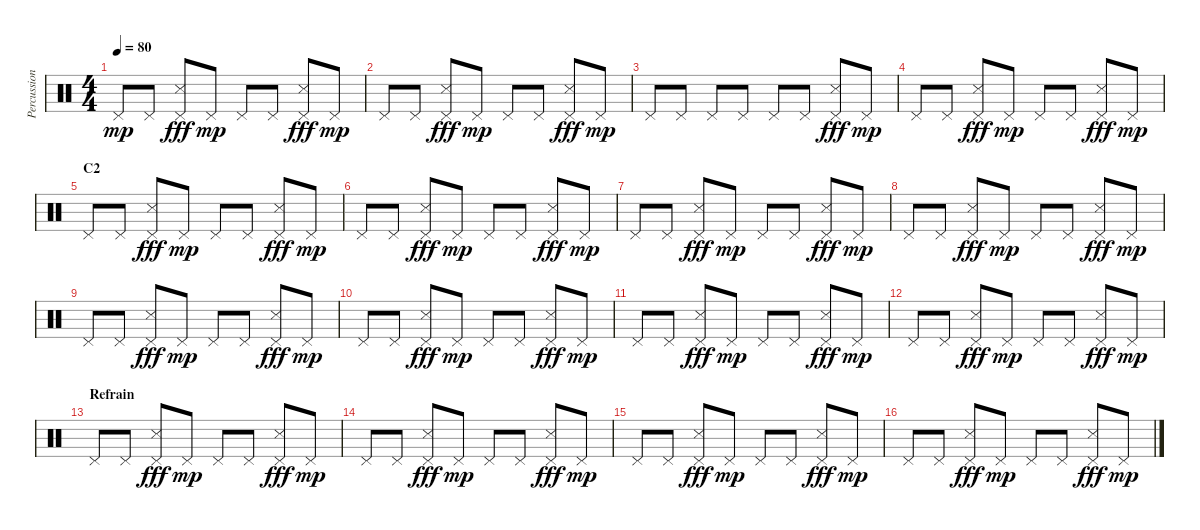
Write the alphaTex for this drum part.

\track ("Percussions" "Percussion") {instrument percussion}
\staff {score}
\articulation defaults
\ts (4 4)
\tempo 80
\clef neutral
\ks c "Pedal Hi-Hat (hit)".8{dy mp} "Pedal Hi-Hat (hit)".8
("Pedal Hi-Hat (hit)" "Snare (side stick) 3").8{dy fff} "Pedal Hi-Hat (hit)".8{dy mp} "Pedal Hi-Hat (hit)".8 "Pedal Hi-Hat (hit)".8 ("Pedal Hi-Hat (hit)" "Snare (side stick) 3").8{dy fff} "Pedal Hi-Hat (hit)".8{dy mp} |
"Pedal Hi-Hat (hit)".8 "Pedal Hi-Hat (hit)".8 ("Pedal Hi-Hat (hit)" "Snare (side stick) 3").8{dy fff} "Pedal Hi-Hat (hit)".8{dy mp} "Pedal Hi-Hat (hit)".8 "Pedal Hi-Hat (hit)".8 ("Pedal Hi-Hat (hit)" "Snare (side stick) 3").8{dy fff} "Pedal Hi-Hat (hit)".8{dy mp} |
"Pedal Hi-Hat (hit)".8 "Pedal Hi-Hat (hit)".8 "Pedal Hi-Hat (hit)".8 "Pedal Hi-Hat (hit)".8 "Pedal Hi-Hat (hit)".8 "Pedal Hi-Hat (hit)".8 ("Pedal Hi-Hat (hit)" "Snare (side stick) 3").8{dy fff} "Pedal Hi-Hat (hit)".8{dy mp} |
"Pedal Hi-Hat (hit)".8 "Pedal Hi-Hat (hit)".8 ("Pedal Hi-Hat (hit)" "Snare (side stick) 3").8{dy fff} "Pedal Hi-Hat (hit)".8{dy mp} "Pedal Hi-Hat (hit)".8 "Pedal Hi-Hat (hit)".8 ("Pedal Hi-Hat (hit)" "Snare (side stick) 3").8{dy fff} "Pedal Hi-Hat (hit)".8{dy mp} |
\section ("" "C2")
"Pedal Hi-Hat (hit)".8 "Pedal Hi-Hat (hit)".8 ("Pedal Hi-Hat (hit)" "Snare (side stick) 3").8{dy fff} "Pedal Hi-Hat (hit)".8{dy mp} "Pedal Hi-Hat (hit)".8 "Pedal Hi-Hat (hit)".8 ("Pedal Hi-Hat (hit)" "Snare (side stick) 3").8{dy fff} "Pedal Hi-Hat (hit)".8{dy mp} |
"Pedal Hi-Hat (hit)".8 "Pedal Hi-Hat (hit)".8 ("Pedal Hi-Hat (hit)" "Snare (side stick) 3").8{dy fff} "Pedal Hi-Hat (hit)".8{dy mp} "Pedal Hi-Hat (hit)".8 "Pedal Hi-Hat (hit)".8 ("Pedal Hi-Hat (hit)" "Snare (side stick) 3").8{dy fff} "Pedal Hi-Hat (hit)".8{dy mp} |
"Pedal Hi-Hat (hit)".8 "Pedal Hi-Hat (hit)".8 ("Pedal Hi-Hat (hit)" "Snare (side stick) 3").8{dy fff} "Pedal Hi-Hat (hit)".8{dy mp} "Pedal Hi-Hat (hit)".8 "Pedal Hi-Hat (hit)".8 ("Pedal Hi-Hat (hit)" "Snare (side stick) 3").8{dy fff} "Pedal Hi-Hat (hit)".8{dy mp} |
"Pedal Hi-Hat (hit)".8 "Pedal Hi-Hat (hit)".8 ("Pedal Hi-Hat (hit)" "Snare (side stick) 3").8{dy fff} "Pedal Hi-Hat (hit)".8{dy mp} "Pedal Hi-Hat (hit)".8 "Pedal Hi-Hat (hit)".8 ("Pedal Hi-Hat (hit)" "Snare (side stick) 3").8{dy fff} "Pedal Hi-Hat (hit)".8{dy mp} |
"Pedal Hi-Hat (hit)".8 "Pedal Hi-Hat (hit)".8 ("Pedal Hi-Hat (hit)" "Snare (side stick) 3").8{dy fff} "Pedal Hi-Hat (hit)".8{dy mp} "Pedal Hi-Hat (hit)".8 "Pedal Hi-Hat (hit)".8 ("Pedal Hi-Hat (hit)" "Snare (side stick) 3").8{dy fff} "Pedal Hi-Hat (hit)".8{dy mp} |
"Pedal Hi-Hat (hit)".8 "Pedal Hi-Hat (hit)".8 ("Pedal Hi-Hat (hit)" "Snare (side stick) 3").8{dy fff} "Pedal Hi-Hat (hit)".8{dy mp} "Pedal Hi-Hat (hit)".8 "Pedal Hi-Hat (hit)".8 ("Pedal Hi-Hat (hit)" "Snare (side stick) 3").8{dy fff} "Pedal Hi-Hat (hit)".8{dy mp} |
"Pedal Hi-Hat (hit)".8 "Pedal Hi-Hat (hit)".8 ("Pedal Hi-Hat (hit)" "Snare (side stick) 3").8{dy fff} "Pedal Hi-Hat (hit)".8{dy mp} "Pedal Hi-Hat (hit)".8 "Pedal Hi-Hat (hit)".8 ("Pedal Hi-Hat (hit)" "Snare (side stick) 3").8{dy fff} "Pedal Hi-Hat (hit)".8{dy mp} |
"Pedal Hi-Hat (hit)".8 "Pedal Hi-Hat (hit)".8 ("Pedal Hi-Hat (hit)" "Snare (side stick) 3").8{dy fff} "Pedal Hi-Hat (hit)".8{dy mp} "Pedal Hi-Hat (hit)".8 "Pedal Hi-Hat (hit)".8 ("Pedal Hi-Hat (hit)" "Snare (side stick) 3").8{dy fff} "Pedal Hi-Hat (hit)".8{dy mp} |
\section ("" "Refrain")
"Pedal Hi-Hat (hit)".8 "Pedal Hi-Hat (hit)".8 ("Pedal Hi-Hat (hit)" "Snare (side stick) 3").8{dy fff} "Pedal Hi-Hat (hit)".8{dy mp} "Pedal Hi-Hat (hit)".8 "Pedal Hi-Hat (hit)".8 ("Pedal Hi-Hat (hit)" "Snare (side stick) 3").8{dy fff} "Pedal Hi-Hat (hit)".8{dy mp} |
"Pedal Hi-Hat (hit)".8 "Pedal Hi-Hat (hit)".8 ("Pedal Hi-Hat (hit)" "Snare (side stick) 3").8{dy fff} "Pedal Hi-Hat (hit)".8{dy mp} "Pedal Hi-Hat (hit)".8 "Pedal Hi-Hat (hit)".8 ("Pedal Hi-Hat (hit)" "Snare (side stick) 3").8{dy fff} "Pedal Hi-Hat (hit)".8{dy mp} |
"Pedal Hi-Hat (hit)".8 "Pedal Hi-Hat (hit)".8 ("Pedal Hi-Hat (hit)" "Snare (side stick) 3").8{dy fff} "Pedal Hi-Hat (hit)".8{dy mp} "Pedal Hi-Hat (hit)".8 "Pedal Hi-Hat (hit)".8 ("Pedal Hi-Hat (hit)" "Snare (side stick) 3").8{dy fff} "Pedal Hi-Hat (hit)".8{dy mp} |
"Pedal Hi-Hat (hit)".8 "Pedal Hi-Hat (hit)".8 ("Pedal Hi-Hat (hit)" "Snare (side stick) 3").8{dy fff} "Pedal Hi-Hat (hit)".8{dy mp} "Pedal Hi-Hat (hit)".8 "Pedal Hi-Hat (hit)".8 ("Pedal Hi-Hat (hit)" "Snare (side stick) 3").8{dy fff} "Pedal Hi-Hat (hit)".8{dy mp}
